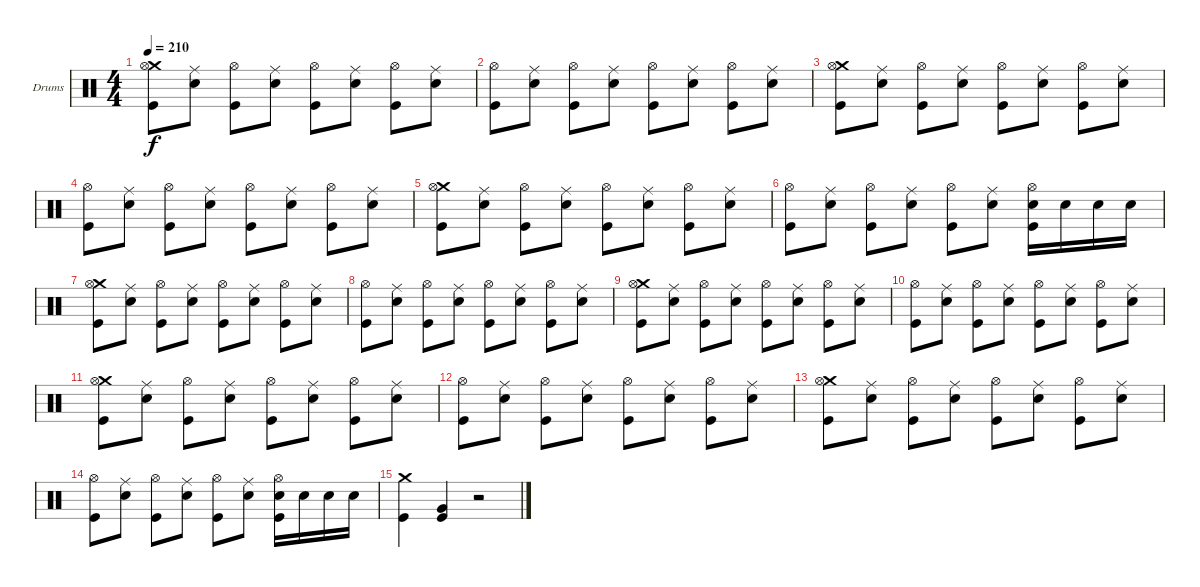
\bracketExtendMode groupsimilarinstruments
\firstSystemTrackNameOrientation horizontal
\otherSystemsTrackNameOrientation horizontal
\track ("Drumkit" "Drums") {instrument percussion}
\staff {score}
\articulation defaults
\ts (4 4)
\tempo 210
\clef neutral
\ks c
("Crash medium (hit)" "Hi-Hat (open)" "Kick (hit)").8{dy f} ("Ride (middle)" "Snare (hit) 2").8 ("Hi-Hat (open)" "Kick (hit)").8 ("Ride (middle)" "Snare (hit) 2").8 ("Hi-Hat (open)" "Kick (hit)").8 ("Ride (middle)" "Snare (hit) 2").8 ("Hi-Hat (open)" "Kick (hit)").8 ("Ride (middle)" "Snare (hit) 2").8 |
("Hi-Hat (open)" "Kick (hit)").8 ("Ride (middle)" "Snare (hit) 2").8 ("Hi-Hat (open)" "Kick (hit)").8 ("Ride (middle)" "Snare (hit) 2").8 ("Hi-Hat (open)" "Kick (hit)").8 ("Ride (middle)" "Snare (hit) 2").8 ("Hi-Hat (open)" "Kick (hit)").8 ("Ride (middle)" "Snare (hit) 2").8 |
("Crash medium (hit)" "Hi-Hat (open)" "Kick (hit)").8 ("Ride (middle)" "Snare (hit) 2").8 ("Hi-Hat (open)" "Kick (hit)").8 ("Ride (middle)" "Snare (hit) 2").8 ("Hi-Hat (open)" "Kick (hit)").8 ("Ride (middle)" "Snare (hit) 2").8 ("Hi-Hat (open)" "Kick (hit)").8 ("Ride (middle)" "Snare (hit) 2").8 |
("Hi-Hat (open)" "Kick (hit)").8 ("Ride (middle)" "Snare (hit) 2").8 ("Hi-Hat (open)" "Kick (hit)").8 ("Ride (middle)" "Snare (hit) 2").8 ("Hi-Hat (open)" "Kick (hit)").8 ("Ride (middle)" "Snare (hit) 2").8 ("Hi-Hat (open)" "Kick (hit)").8 ("Ride (middle)" "Snare (hit) 2").8 |
("Crash medium (hit)" "Hi-Hat (open)" "Kick (hit)").8 ("Ride (middle)" "Snare (hit) 2").8 ("Hi-Hat (open)" "Kick (hit)").8 ("Ride (middle)" "Snare (hit) 2").8 ("Hi-Hat (open)" "Kick (hit)").8 ("Ride (middle)" "Snare (hit) 2").8 ("Hi-Hat (open)" "Kick (hit)").8 ("Ride (middle)" "Snare (hit) 2").8 |
("Hi-Hat (open)" "Kick (hit)").8 ("Ride (middle)" "Snare (hit) 2").8 ("Hi-Hat (open)" "Kick (hit)").8 ("Ride (middle)" "Snare (hit) 2").8 ("Hi-Hat (open)" "Kick (hit)").8 ("Ride (middle)" "Snare (hit) 2").8 ("Hi-Hat (open)" "Snare (hit) 2" "Kick (hit)").16 "Snare (hit) 2".16 "Snare (hit) 2".16 "Snare (hit) 2".16 |
("Crash medium (hit)" "Hi-Hat (open)" "Kick (hit)").8 ("Ride (middle)" "Snare (hit) 2").8 ("Hi-Hat (open)" "Kick (hit)").8 ("Ride (middle)" "Snare (hit) 2").8 ("Hi-Hat (open)" "Kick (hit)").8 ("Ride (middle)" "Snare (hit) 2").8 ("Hi-Hat (open)" "Kick (hit)").8 ("Ride (middle)" "Snare (hit) 2").8 |
("Hi-Hat (open)" "Kick (hit)").8 ("Ride (middle)" "Snare (hit) 2").8 ("Hi-Hat (open)" "Kick (hit)").8 ("Ride (middle)" "Snare (hit) 2").8 ("Hi-Hat (open)" "Kick (hit)").8 ("Ride (middle)" "Snare (hit) 2").8 ("Hi-Hat (open)" "Kick (hit)").8 ("Ride (middle)" "Snare (hit) 2").8 |
("Crash medium (hit)" "Hi-Hat (open)" "Kick (hit)").8 ("Ride (middle)" "Snare (hit) 2").8 ("Hi-Hat (open)" "Kick (hit)").8 ("Ride (middle)" "Snare (hit) 2").8 ("Hi-Hat (open)" "Kick (hit)").8 ("Ride (middle)" "Snare (hit) 2").8 ("Hi-Hat (open)" "Kick (hit)").8 ("Ride (middle)" "Snare (hit) 2").8 |
("Hi-Hat (open)" "Kick (hit)").8 ("Ride (middle)" "Snare (hit) 2").8 ("Hi-Hat (open)" "Kick (hit)").8 ("Ride (middle)" "Snare (hit) 2").8 ("Hi-Hat (open)" "Kick (hit)").8 ("Ride (middle)" "Snare (hit) 2").8 ("Hi-Hat (open)" "Kick (hit)").8 ("Ride (middle)" "Snare (hit) 2").8 |
("Crash medium (hit)" "Hi-Hat (open)" "Kick (hit)").8 ("Ride (middle)" "Snare (hit) 2").8 ("Hi-Hat (open)" "Kick (hit)").8 ("Ride (middle)" "Snare (hit) 2").8 ("Hi-Hat (open)" "Kick (hit)").8 ("Ride (middle)" "Snare (hit) 2").8 ("Hi-Hat (open)" "Kick (hit)").8 ("Ride (middle)" "Snare (hit) 2").8 |
("Hi-Hat (open)" "Kick (hit)").8 ("Ride (middle)" "Snare (hit) 2").8 ("Hi-Hat (open)" "Kick (hit)").8 ("Ride (middle)" "Snare (hit) 2").8 ("Hi-Hat (open)" "Kick (hit)").8 ("Ride (middle)" "Snare (hit) 2").8 ("Hi-Hat (open)" "Kick (hit)").8 ("Ride (middle)" "Snare (hit) 2").8 |
("Crash medium (hit)" "Hi-Hat (open)" "Kick (hit)").8 ("Ride (middle)" "Snare (hit) 2").8 ("Hi-Hat (open)" "Kick (hit)").8 ("Ride (middle)" "Snare (hit) 2").8 ("Hi-Hat (open)" "Kick (hit)").8 ("Ride (middle)" "Snare (hit) 2").8 ("Hi-Hat (open)" "Kick (hit)").8 ("Ride (middle)" "Snare (hit) 2").8 |
("Hi-Hat (open)" "Kick (hit)").8 ("Ride (middle)" "Snare (hit) 2").8 ("Hi-Hat (open)" "Kick (hit)").8 ("Ride (middle)" "Snare (hit) 2").8 ("Hi-Hat (open)" "Kick (hit)").8 ("Ride (middle)" "Snare (hit) 2").8 ("Hi-Hat (open)" "Snare (hit) 2" "Kick (hit)").16 "Snare (hit) 2".16 "Snare (hit) 2".16 "Snare (hit) 2".16 |
("Crash medium (hit)" "Kick (hit)").4 ("Very Low Tom (hit)" "Kick (hit)").4 r.2
